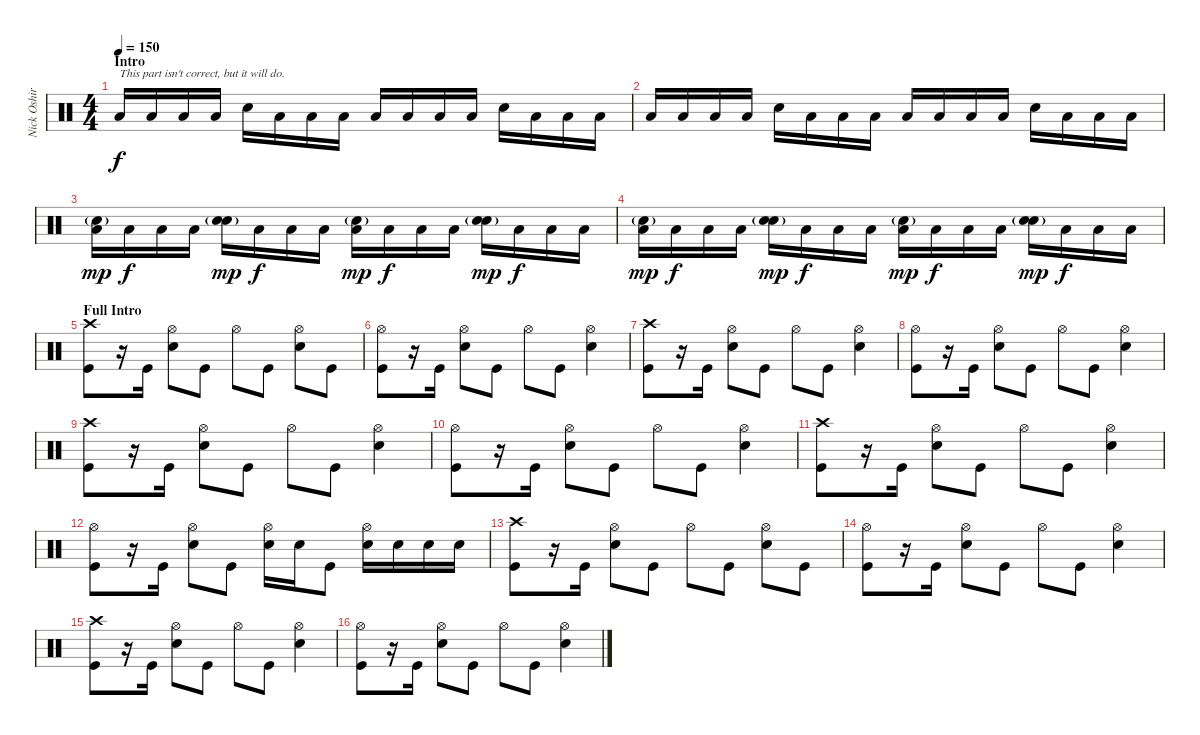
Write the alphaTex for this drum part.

\track ("Nick Oshiro" "Nick Oshir") {instrument percussion}
\staff {score}
\articulation defaults
\ts (4 4)
\section ("" "Intro")
\tempo 150
\clef neutral
\ks c "Low Tom (hit)".16{txt "This part isn't correct, but it will do." dy f} "Low Tom (hit)".16 "Low Tom (hit)".16 "Low Tom (hit)".16 "Snare (hit) 2".16 "Low Tom (hit)".16 "Low Tom (hit)".16 "Low Tom (hit)".16 "Low Tom (hit)".16 "Low Tom (hit)".16 "Low Tom (hit)".16 "Low Tom (hit)".16 "Snare (hit) 2".16 "Low Tom (hit)".16 "Low Tom (hit)".16 "Low Tom (hit)".16
|
"Low Tom (hit)".16 "Low Tom (hit)".16 "Low Tom (hit)".16 "Low Tom (hit)".16 "Snare (hit) 2".16 "Low Tom (hit)".16 "Low Tom (hit)".16 "Low Tom (hit)".16 "Low Tom (hit)".16 "Low Tom (hit)".16 "Low Tom (hit)".16 "Low Tom (hit)".16 "Snare (hit) 2".16 "Low Tom (hit)".16 "Low Tom (hit)".16 "Low Tom (hit)".16 |
("Low Tom (hit)" "Hand Clap (hit)"{g}).16{dy mp} "Low Tom (hit)".16{dy f} "Low Tom (hit)".16 "Low Tom (hit)".16 ("Snare (hit) 2" "Hand Clap (hit)"{g}).16{dy mp} "Low Tom (hit)".16{dy f} "Low Tom (hit)".16 "Low Tom (hit)".16 ("Low Tom (hit)" "Hand Clap (hit)"{g}).16{dy mp} "Low Tom (hit)".16{dy f} "Low Tom (hit)".16 "Low Tom (hit)".16 ("Snare (hit) 2" "Hand Clap (hit)"{g}).16{dy mp} "Low Tom (hit)".16{dy f} "Low Tom (hit)".16 "Low Tom (hit)".16 |
("Low Tom (hit)" "Hand Clap (hit)"{g}).16{dy mp} "Low Tom (hit)".16{dy f} "Low Tom (hit)".16 "Low Tom (hit)".16 ("Snare (hit) 2" "Hand Clap (hit)"{g}).16{dy mp} "Low Tom (hit)".16{dy f} "Low Tom (hit)".16 "Low Tom (hit)".16 ("Low Tom (hit)" "Hand Clap (hit)"{g}).16{dy mp} "Low Tom (hit)".16{dy f} "Low Tom (hit)".16 "Low Tom (hit)".16 ("Snare (hit) 2" "Hand Clap (hit)"{g}).16{dy mp} "Low Tom (hit)".16{dy f} "Low Tom (hit)".16 "Low Tom (hit)".16 |
\section ("" "Full Intro")
("Crash high (hit)" "Kick (hit)").8 r.16 "Kick (hit)".16 ("Hi-Hat (open)" "Snare (hit) 2").8 "Kick (hit)".8 "Hi-Hat (open)".8 "Kick (hit)".8 ("Hi-Hat (open)" "Snare (hit) 2").8 "Kick (hit)".8 |
("Hi-Hat (open)" "Kick (hit)").8 r.16 "Kick (hit)".16 ("Hi-Hat (open)" "Snare (hit) 2").8 "Kick (hit)".8 "Hi-Hat (open)".8 "Kick (hit)".8 ("Hi-Hat (open)" "Snare (hit) 2").4 |
("Crash high (hit)" "Kick (hit)").8 r.16 "Kick (hit)".16 ("Hi-Hat (open)" "Snare (hit) 2").8 "Kick (hit)".8 "Hi-Hat (open)".8 "Kick (hit)".8 ("Hi-Hat (open)" "Snare (hit) 2").4 |
("Hi-Hat (open)" "Kick (hit)").8 r.16 "Kick (hit)".16 ("Hi-Hat (open)" "Snare (hit) 2").8 "Kick (hit)".8 "Hi-Hat (open)".8 "Kick (hit)".8 ("Hi-Hat (open)" "Snare (hit) 2").4 |
("Crash high (hit)" "Kick (hit)").8 r.16 "Kick (hit)".16 ("Hi-Hat (open)" "Snare (hit) 2").8 "Kick (hit)".8 "Hi-Hat (open)".8 "Kick (hit)".8 ("Hi-Hat (open)" "Snare (hit) 2").4 |
("Hi-Hat (open)" "Kick (hit)").8 r.16 "Kick (hit)".16 ("Hi-Hat (open)" "Snare (hit) 2").8 "Kick (hit)".8 "Hi-Hat (open)".8 "Kick (hit)".8 ("Hi-Hat (open)" "Snare (hit) 2").4 |
("Crash high (hit)" "Kick (hit)").8 r.16 "Kick (hit)".16 ("Hi-Hat (open)" "Snare (hit) 2").8 "Kick (hit)".8 "Hi-Hat (open)".8 "Kick (hit)".8 ("Hi-Hat (open)" "Snare (hit) 2").4 |
("Hi-Hat (open)" "Kick (hit)").8 r.16 "Kick (hit)".16 ("Hi-Hat (open)" "Snare (hit) 2").8 "Kick (hit)".8 ("Hi-Hat (open)" "Snare (hit) 2").16 "Snare (hit) 2".16 "Kick (hit)".8 ("Hi-Hat (open)" "Snare (hit) 2").16 "Snare (hit) 2".16 "Snare (hit) 2".16 "Snare (hit) 2".16 |
("Crash high (hit)" "Kick (hit)").8 r.16 "Kick (hit)".16 ("Hi-Hat (open)" "Snare (hit) 2").8 "Kick (hit)".8 "Hi-Hat (open)".8 "Kick (hit)".8 ("Hi-Hat (open)" "Snare (hit) 2").8 "Kick (hit)".8 |
("Hi-Hat (open)" "Kick (hit)").8 r.16 "Kick (hit)".16 ("Hi-Hat (open)" "Snare (hit) 2").8 "Kick (hit)".8 "Hi-Hat (open)".8 "Kick (hit)".8 ("Hi-Hat (open)" "Snare (hit) 2").4 |
("Crash high (hit)" "Kick (hit)").8 r.16 "Kick (hit)".16 ("Hi-Hat (open)" "Snare (hit) 2").8 "Kick (hit)".8 "Hi-Hat (open)".8 "Kick (hit)".8 ("Hi-Hat (open)" "Snare (hit) 2").4 |
("Hi-Hat (open)" "Kick (hit)").8 r.16 "Kick (hit)".16 ("Hi-Hat (open)" "Snare (hit) 2").8 "Kick (hit)".8 "Hi-Hat (open)".8 "Kick (hit)".8 ("Hi-Hat (open)" "Snare (hit) 2").4
